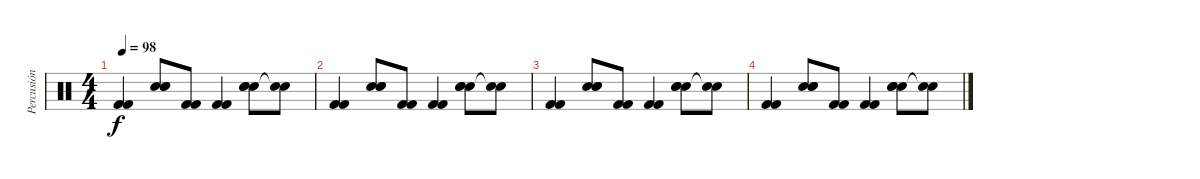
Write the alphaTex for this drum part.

\track ("Percusión" "Percusión") {instrument percussion}
\staff {score}
\articulation defaults
\ts (4 4)
\tempo 98
\clef neutral
\ks c
("Kick (hit) 2" "Kick (hit) 2").4{dy f} ("Electric Snare (hit)" "Electric Snare (hit)" "Electric Snare (hit)").8 ("Kick (hit) 2" "Kick (hit) 2").8 ("Kick (hit) 2" "Kick (hit) 2").4 ("Electric Snare (hit)" "Electric Snare (hit)" "Electric Snare (hit)").8 ("Snare (hit)"{t} "Snare (hit)"{t}).8 |
("Kick (hit) 2" "Kick (hit) 2").4 ("Electric Snare (hit)" "Electric Snare (hit)" "Electric Snare (hit)").8 ("Kick (hit) 2" "Kick (hit) 2").8 ("Kick (hit) 2" "Kick (hit) 2").4 ("Electric Snare (hit)" "Electric Snare (hit)" "Electric Snare (hit)").8 ("Snare (hit)"{t} "Snare (hit)"{t}).8 |
("Kick (hit) 2" "Kick (hit) 2").4 ("Electric Snare (hit)" "Electric Snare (hit)" "Electric Snare (hit)").8 ("Kick (hit) 2" "Kick (hit) 2").8 ("Kick (hit) 2" "Kick (hit) 2").4 ("Electric Snare (hit)" "Electric Snare (hit)" "Electric Snare (hit)").8 ("Snare (hit)"{t} "Snare (hit)"{t}).8 |
("Kick (hit) 2" "Kick (hit) 2").4 ("Electric Snare (hit)" "Electric Snare (hit)" "Electric Snare (hit)").8 ("Kick (hit) 2" "Kick (hit) 2").8 ("Kick (hit) 2" "Kick (hit) 2").4 ("Electric Snare (hit)" "Electric Snare (hit)" "Electric Snare (hit)").8 ("Snare (hit)"{t} "Snare (hit)"{t}).8
